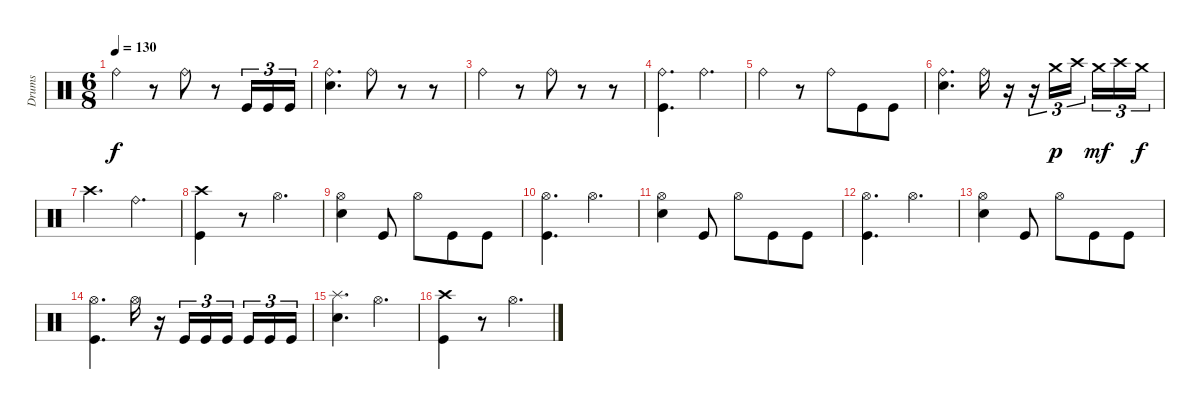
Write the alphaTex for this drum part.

\track ("Drums" "Drums") {instrument percussion}
\staff {score}
\articulation defaults
\ts (6 8)
\tempo 130
\clef neutral
\ks c "Ride (bell)".4{dy f}
r.8 "Ride (bell)".8 r.8 "Kick (hit)".16{tu (3 2)} "Kick (hit)".16{tu (3 2)} "Kick (hit)".16{tu (3 2)} |
("Snare (hit) 2" "Ride (bell)").4{d} "Ride (bell)".8 r.8 r.8 |
"Ride (bell)".4 r.8 "Ride (bell)".8 r.8 r.8 |
("Kick (hit)" "Ride (bell)").4{d} "Ride (bell)".4{d} |
"Ride (bell)".4 r.8 "Ride (bell)".8 "Kick (hit)".8 "Kick (hit)".8 |
("Snare (hit) 2" "Ride (bell)").4{d} "Ride (bell)".16 r.16 r.16{tu (3 2)} "Crash medium (hit)".16{tu (3 2) dy p} "Crash high (hit)".16{tu (3 2) beam splitsecondary} "Crash medium (hit)".16{tu (3 2) dy mf} "Crash high (hit)".16{tu (3 2)} "Crash medium (hit)".16{tu (3 2) dy f} |
"Crash high (hit)".4{d} "Ride (bell)".4{d} |
("Kick (hit)" "Crash high (hit)").4 r.8 "Hi-Hat (open)".4{d} |
("Snare (hit) 2" "Hi-Hat (open)").4 "Kick (hit)".8 "Hi-Hat (open)".8 "Kick (hit)".8 "Kick (hit)".8 |
("Kick (hit)" "Hi-Hat (open)").4{d} "Hi-Hat (open)".4{d} |
("Snare (hit) 2" "Hi-Hat (open)").4 "Kick (hit)".8 "Hi-Hat (open)".8 "Kick (hit)".8 "Kick (hit)".8 |
("Kick (hit)" "Hi-Hat (open)").4{d} "Hi-Hat (open)".4{d} |
("Snare (hit) 2" "Hi-Hat (open)").4 "Kick (hit)".8 "Hi-Hat (open)".8 "Kick (hit)".8 "Kick (hit)".8 |
("Kick (hit)" "Hi-Hat (open)").4{d} "Hi-Hat (open)".16 r.16 "Kick (hit)".16{tu (3 2)} "Kick (hit)".16{tu (3 2)} "Kick (hit)".16{tu (3 2) beam splitsecondary} "Kick (hit)".16{tu (3 2)} "Kick (hit)".16{tu (3 2)} "Kick (hit)".16{tu (3 2)} |
("Snare (hit) 2" "Splash (hit)").4{d} "Hi-Hat (open)".4{d} |
("Kick (hit)" "Crash high (hit)").4 r.8 "Hi-Hat (open)".4{d}
